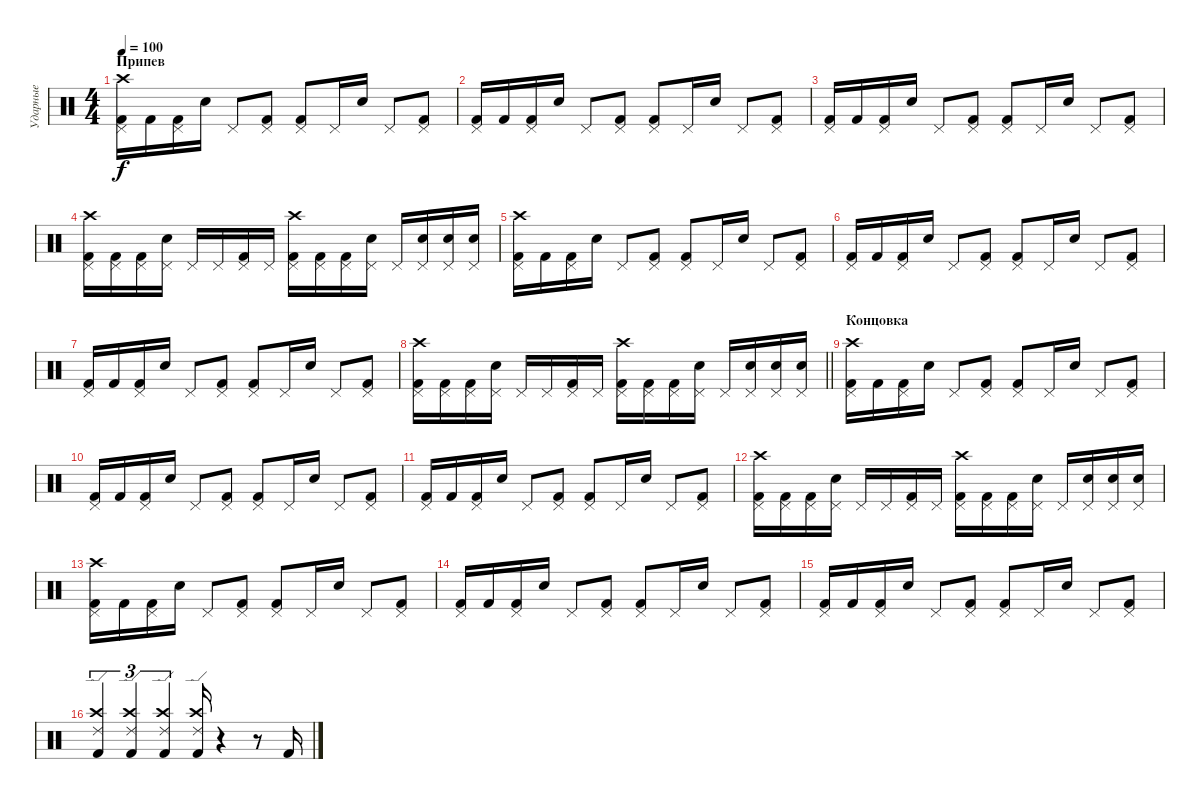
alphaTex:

\track ("Ударные" "Ударные") {instrument percussion}
\staff {score}
\articulation defaults
\ts (4 4)
\section ("" "Припев")
\tempo 100
\clef neutral
\ks c
("Pedal Hi-Hat (hit)" "Kick (hit) 2" "Crash high (hit)").16{dy f} "Kick (hit) 2".16 ("Pedal Hi-Hat (hit)" "Kick (hit) 2").16 "Snare (hit) 2".16 "Pedal Hi-Hat (hit)".8 ("Pedal Hi-Hat (hit)" "Kick (hit) 2").8 ("Pedal Hi-Hat (hit)" "Kick (hit) 2").8 "Pedal Hi-Hat (hit)".16 "Snare (hit) 2".16 "Pedal Hi-Hat (hit)".8 ("Pedal Hi-Hat (hit)" "Kick (hit) 2").8 |
("Pedal Hi-Hat (hit)" "Kick (hit) 2").16 "Kick (hit) 2".16 ("Pedal Hi-Hat (hit)" "Kick (hit) 2").16 "Snare (hit) 2".16 "Pedal Hi-Hat (hit)".8 ("Pedal Hi-Hat (hit)" "Kick (hit) 2").8 ("Pedal Hi-Hat (hit)" "Kick (hit) 2").8 "Pedal Hi-Hat (hit)".16 "Snare (hit) 2".16 "Pedal Hi-Hat (hit)".8 ("Pedal Hi-Hat (hit)" "Kick (hit) 2").8 |
("Pedal Hi-Hat (hit)" "Kick (hit) 2").16 "Kick (hit) 2".16 ("Pedal Hi-Hat (hit)" "Kick (hit) 2").16 "Snare (hit) 2".16 "Pedal Hi-Hat (hit)".8 ("Pedal Hi-Hat (hit)" "Kick (hit) 2").8 ("Pedal Hi-Hat (hit)" "Kick (hit) 2").8 "Pedal Hi-Hat (hit)".16 "Snare (hit) 2".16 "Pedal Hi-Hat (hit)".8 ("Pedal Hi-Hat (hit)" "Kick (hit) 2").8 |
("Pedal Hi-Hat (hit)" "Kick (hit) 2" "Crash high (hit)").16 ("Pedal Hi-Hat (hit)" "Kick (hit) 2").16 ("Pedal Hi-Hat (hit)" "Kick (hit) 2").16 ("Pedal Hi-Hat (hit)" "Snare (hit) 2").16 "Pedal Hi-Hat (hit)".16 "Pedal Hi-Hat (hit)".16 ("Pedal Hi-Hat (hit)" "Kick (hit) 2").16 "Pedal Hi-Hat (hit)".16 ("Pedal Hi-Hat (hit)" "Kick (hit) 2" "Crash high (hit)").16 ("Pedal Hi-Hat (hit)" "Kick (hit) 2").16 ("Pedal Hi-Hat (hit)" "Kick (hit) 2").16 ("Pedal Hi-Hat (hit)" "Snare (hit) 2").16 "Pedal Hi-Hat (hit)".16 ("Pedal Hi-Hat (hit)" "Snare (hit) 2").16 ("Pedal Hi-Hat (hit)" "Snare (hit) 2").16 ("Pedal Hi-Hat (hit)" "Snare (hit) 2").16 |
("Pedal Hi-Hat (hit)" "Kick (hit) 2" "Crash high (hit)").16 "Kick (hit) 2".16 ("Pedal Hi-Hat (hit)" "Kick (hit) 2").16 "Snare (hit) 2".16 "Pedal Hi-Hat (hit)".8 ("Pedal Hi-Hat (hit)" "Kick (hit) 2").8 ("Pedal Hi-Hat (hit)" "Kick (hit) 2").8 "Pedal Hi-Hat (hit)".16 "Snare (hit) 2".16 "Pedal Hi-Hat (hit)".8 ("Pedal Hi-Hat (hit)" "Kick (hit) 2").8 |
("Pedal Hi-Hat (hit)" "Kick (hit) 2").16 "Kick (hit) 2".16 ("Pedal Hi-Hat (hit)" "Kick (hit) 2").16 "Snare (hit) 2".16 "Pedal Hi-Hat (hit)".8 ("Pedal Hi-Hat (hit)" "Kick (hit) 2").8 ("Pedal Hi-Hat (hit)" "Kick (hit) 2").8 "Pedal Hi-Hat (hit)".16 "Snare (hit) 2".16 "Pedal Hi-Hat (hit)".8 ("Pedal Hi-Hat (hit)" "Kick (hit) 2").8 |
("Pedal Hi-Hat (hit)" "Kick (hit) 2").16 "Kick (hit) 2".16 ("Pedal Hi-Hat (hit)" "Kick (hit) 2").16 "Snare (hit) 2".16 "Pedal Hi-Hat (hit)".8 ("Pedal Hi-Hat (hit)" "Kick (hit) 2").8 ("Pedal Hi-Hat (hit)" "Kick (hit) 2").8 "Pedal Hi-Hat (hit)".16 "Snare (hit) 2".16 "Pedal Hi-Hat (hit)".8 ("Pedal Hi-Hat (hit)" "Kick (hit) 2").8 |
\barLineRight lightlight
("Pedal Hi-Hat (hit)" "Kick (hit) 2" "Crash high (hit)").16 ("Pedal Hi-Hat (hit)" "Kick (hit) 2").16 ("Pedal Hi-Hat (hit)" "Kick (hit) 2").16 ("Pedal Hi-Hat (hit)" "Snare (hit) 2").16 "Pedal Hi-Hat (hit)".16 "Pedal Hi-Hat (hit)".16 ("Pedal Hi-Hat (hit)" "Kick (hit) 2").16 "Pedal Hi-Hat (hit)".16 ("Pedal Hi-Hat (hit)" "Kick (hit) 2" "Crash high (hit)").16 ("Pedal Hi-Hat (hit)" "Kick (hit) 2").16 ("Pedal Hi-Hat (hit)" "Kick (hit) 2").16 ("Pedal Hi-Hat (hit)" "Snare (hit) 2").16 "Pedal Hi-Hat (hit)".16 ("Pedal Hi-Hat (hit)" "Snare (hit) 2").16 ("Pedal Hi-Hat (hit)" "Snare (hit) 2").16 ("Pedal Hi-Hat (hit)" "Snare (hit) 2").16 |
\section ("" "Концовка")
("Pedal Hi-Hat (hit)" "Kick (hit) 2" "Crash high (hit)").16 "Kick (hit) 2".16 ("Pedal Hi-Hat (hit)" "Kick (hit) 2").16 "Snare (hit) 2".16 "Pedal Hi-Hat (hit)".8 ("Pedal Hi-Hat (hit)" "Kick (hit) 2").8 ("Pedal Hi-Hat (hit)" "Kick (hit) 2").8 "Pedal Hi-Hat (hit)".16 "Snare (hit) 2".16 "Pedal Hi-Hat (hit)".8 ("Pedal Hi-Hat (hit)" "Kick (hit) 2").8 |
("Pedal Hi-Hat (hit)" "Kick (hit) 2").16 "Kick (hit) 2".16 ("Pedal Hi-Hat (hit)" "Kick (hit) 2").16 "Snare (hit) 2".16 "Pedal Hi-Hat (hit)".8 ("Pedal Hi-Hat (hit)" "Kick (hit) 2").8 ("Pedal Hi-Hat (hit)" "Kick (hit) 2").8 "Pedal Hi-Hat (hit)".16 "Snare (hit) 2".16 "Pedal Hi-Hat (hit)".8 ("Pedal Hi-Hat (hit)" "Kick (hit) 2").8 |
("Pedal Hi-Hat (hit)" "Kick (hit) 2").16 "Kick (hit) 2".16 ("Pedal Hi-Hat (hit)" "Kick (hit) 2").16 "Snare (hit) 2".16 "Pedal Hi-Hat (hit)".8 ("Pedal Hi-Hat (hit)" "Kick (hit) 2").8 ("Pedal Hi-Hat (hit)" "Kick (hit) 2").8 "Pedal Hi-Hat (hit)".16 "Snare (hit) 2".16 "Pedal Hi-Hat (hit)".8 ("Pedal Hi-Hat (hit)" "Kick (hit) 2").8 |
("Pedal Hi-Hat (hit)" "Kick (hit) 2" "Crash high (hit)").16 ("Pedal Hi-Hat (hit)" "Kick (hit) 2").16 ("Pedal Hi-Hat (hit)" "Kick (hit) 2").16 ("Pedal Hi-Hat (hit)" "Snare (hit) 2").16 "Pedal Hi-Hat (hit)".16 "Pedal Hi-Hat (hit)".16 ("Pedal Hi-Hat (hit)" "Kick (hit) 2").16 "Pedal Hi-Hat (hit)".16 ("Pedal Hi-Hat (hit)" "Kick (hit) 2" "Crash high (hit)").16 ("Pedal Hi-Hat (hit)" "Kick (hit) 2").16 ("Pedal Hi-Hat (hit)" "Kick (hit) 2").16 ("Pedal Hi-Hat (hit)" "Snare (hit) 2").16 "Pedal Hi-Hat (hit)".16 ("Pedal Hi-Hat (hit)" "Snare (hit) 2").16 ("Pedal Hi-Hat (hit)" "Snare (hit) 2").16 ("Pedal Hi-Hat (hit)" "Snare (hit) 2").16 |
("Pedal Hi-Hat (hit)" "Kick (hit) 2" "Crash high (hit)").16 "Kick (hit) 2".16 ("Pedal Hi-Hat (hit)" "Kick (hit) 2").16 "Snare (hit) 2".16 "Pedal Hi-Hat (hit)".8 ("Pedal Hi-Hat (hit)" "Kick (hit) 2").8 ("Pedal Hi-Hat (hit)" "Kick (hit) 2").8 "Pedal Hi-Hat (hit)".16 "Snare (hit) 2".16 "Pedal Hi-Hat (hit)".8 ("Pedal Hi-Hat (hit)" "Kick (hit) 2").8 |
("Pedal Hi-Hat (hit)" "Kick (hit) 2").16 "Kick (hit) 2".16 ("Pedal Hi-Hat (hit)" "Kick (hit) 2").16 "Snare (hit) 2".16 "Pedal Hi-Hat (hit)".8 ("Pedal Hi-Hat (hit)" "Kick (hit) 2").8 ("Pedal Hi-Hat (hit)" "Kick (hit) 2").8 "Pedal Hi-Hat (hit)".16 "Snare (hit) 2".16 "Pedal Hi-Hat (hit)".8 ("Pedal Hi-Hat (hit)" "Kick (hit) 2").8 |
("Pedal Hi-Hat (hit)" "Kick (hit) 2").16 "Kick (hit) 2".16 ("Pedal Hi-Hat (hit)" "Kick (hit) 2").16 "Snare (hit) 2".16 "Pedal Hi-Hat (hit)".8 ("Pedal Hi-Hat (hit)" "Kick (hit) 2").8 ("Pedal Hi-Hat (hit)" "Kick (hit) 2").8 "Pedal Hi-Hat (hit)".16 "Snare (hit) 2".16 "Pedal Hi-Hat (hit)".8 ("Pedal Hi-Hat (hit)" "Kick (hit) 2").8 |
("Ride (edge) 2" "Kick (hit) 2" "Crash high (hit)").4{tu (3 2)} ("Ride (edge) 2" "Kick (hit) 2" "Crash high (hit)").4{tu (3 2)} ("Ride (edge) 2" "Kick (hit) 2" "Crash high (hit)").4{tu (3 2)} ("Ride (edge) 2" "Kick (hit) 2" "Crash high (hit)").16 r.4 r.8 "Kick (hit) 2".16
